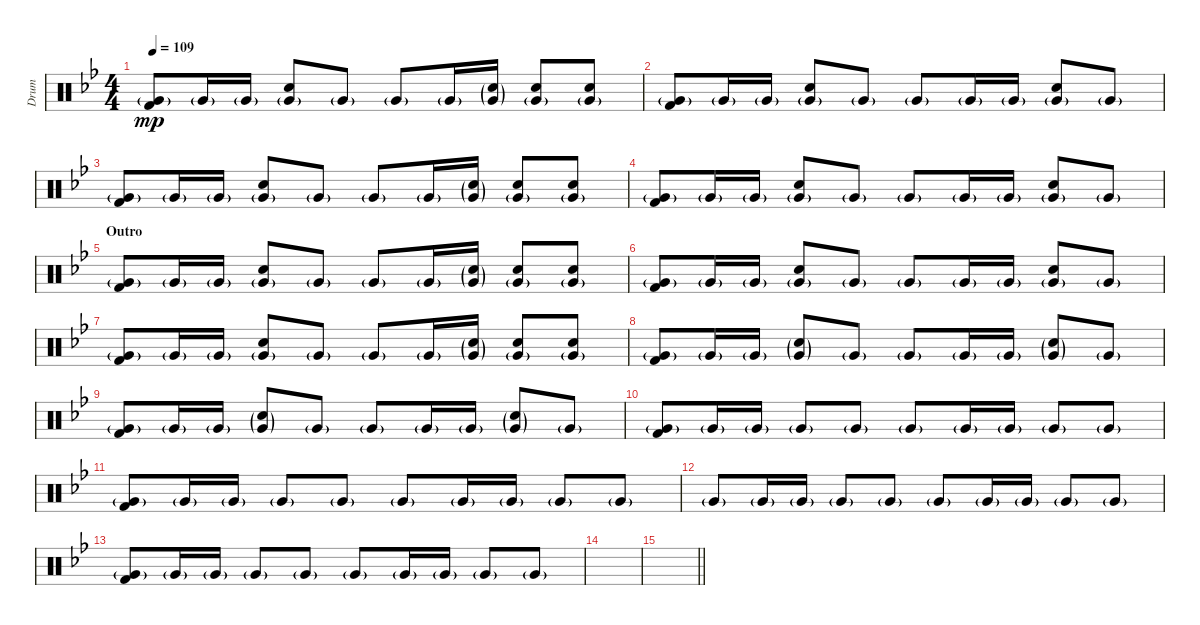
\track ("Drum" "Drum") {instrument percussion}
\staff {score}
\articulation defaults
\ts (4 4)
\tempo 109
\clef neutral
\ks bb
("Very Low Tom (hit)"{g} "Kick (hit) 2").8{dy mp} "Very Low Tom (hit)"{g}.16 "Very Low Tom (hit)"{g}.16 ("Very Low Tom (hit)"{g} "Snare (hit) 2").8 "Very Low Tom (hit)"{g}.8 "Very Low Tom (hit)"{g}.8 "Very Low Tom (hit)"{g}.16 ("Very Low Tom (hit)"{g} "Snare (hit) 2"{g}).16 ("Very Low Tom (hit)"{g} "Snare (hit) 2").8 ("Very Low Tom (hit)"{g} "Snare (hit) 2").8 |
("Very Low Tom (hit)"{g} "Kick (hit) 2").8 "Very Low Tom (hit)"{g}.16 "Very Low Tom (hit)"{g}.16 ("Very Low Tom (hit)"{g} "Snare (hit) 2").8 "Very Low Tom (hit)"{g}.8 "Very Low Tom (hit)"{g}.8 "Very Low Tom (hit)"{g}.16 "Very Low Tom (hit)"{g}.16 ("Very Low Tom (hit)"{g} "Snare (hit) 2").8 "Very Low Tom (hit)"{g}.8 |
("Very Low Tom (hit)"{g} "Kick (hit) 2").8 "Very Low Tom (hit)"{g}.16 "Very Low Tom (hit)"{g}.16 ("Very Low Tom (hit)"{g} "Snare (hit) 2").8 "Very Low Tom (hit)"{g}.8 "Very Low Tom (hit)"{g}.8 "Very Low Tom (hit)"{g}.16 ("Very Low Tom (hit)"{g} "Snare (hit) 2"{g}).16 ("Very Low Tom (hit)"{g} "Snare (hit) 2").8 ("Very Low Tom (hit)"{g} "Snare (hit) 2").8 |
("Very Low Tom (hit)"{g} "Kick (hit) 2").8 "Very Low Tom (hit)"{g}.16 "Very Low Tom (hit)"{g}.16 ("Very Low Tom (hit)"{g} "Snare (hit) 2").8 "Very Low Tom (hit)"{g}.8 "Very Low Tom (hit)"{g}.8 "Very Low Tom (hit)"{g}.16 "Very Low Tom (hit)"{g}.16 ("Very Low Tom (hit)"{g} "Snare (hit) 2").8 "Very Low Tom (hit)"{g}.8 |
\section ("" "Outro")
("Very Low Tom (hit)"{g} "Kick (hit) 2").8 "Very Low Tom (hit)"{g}.16 "Very Low Tom (hit)"{g}.16 ("Very Low Tom (hit)"{g} "Snare (hit) 2").8 "Very Low Tom (hit)"{g}.8 "Very Low Tom (hit)"{g}.8 "Very Low Tom (hit)"{g}.16 ("Very Low Tom (hit)"{g} "Snare (hit) 2"{g}).16 ("Very Low Tom (hit)"{g} "Snare (hit) 2").8 ("Very Low Tom (hit)"{g} "Snare (hit) 2").8 |
("Very Low Tom (hit)"{g} "Kick (hit) 2").8{volume 6} "Very Low Tom (hit)"{g}.16 "Very Low Tom (hit)"{g}.16 ("Very Low Tom (hit)"{g} "Snare (hit) 2").8 "Very Low Tom (hit)"{g}.8 "Very Low Tom (hit)"{g}.8 "Very Low Tom (hit)"{g}.16 "Very Low Tom (hit)"{g}.16 ("Very Low Tom (hit)"{g} "Snare (hit) 2").8 "Very Low Tom (hit)"{g}.8 |
("Very Low Tom (hit)"{g} "Kick (hit) 2").8 "Very Low Tom (hit)"{g}.16 "Very Low Tom (hit)"{g}.16 ("Very Low Tom (hit)"{g} "Snare (hit) 2").8 "Very Low Tom (hit)"{g}.8 "Very Low Tom (hit)"{g}.8 "Very Low Tom (hit)"{g}.16 ("Very Low Tom (hit)"{g} "Snare (hit) 2"{g}).16 ("Very Low Tom (hit)"{g} "Snare (hit) 2").8 ("Very Low Tom (hit)"{g} "Snare (hit) 2").8 |
("Very Low Tom (hit)"{g} "Kick (hit) 2").8 "Very Low Tom (hit)"{g}.16 "Very Low Tom (hit)"{g}.16 ("Very Low Tom (hit)"{g} "Snare (hit) 2"{g}).8 "Very Low Tom (hit)"{g}.8 "Very Low Tom (hit)"{g}.8 "Very Low Tom (hit)"{g}.16 "Very Low Tom (hit)"{g}.16 ("Very Low Tom (hit)"{g} "Snare (hit) 2"{g}).8 "Very Low Tom (hit)"{g}.8 |
("Very Low Tom (hit)"{g} "Kick (hit) 2").8 "Very Low Tom (hit)"{g}.16 "Very Low Tom (hit)"{g}.16 ("Very Low Tom (hit)"{g} "Snare (hit) 2"{g}).8 "Very Low Tom (hit)"{g}.8 "Very Low Tom (hit)"{g}.8 "Very Low Tom (hit)"{g}.16 "Very Low Tom (hit)"{g}.16 ("Very Low Tom (hit)"{g} "Snare (hit) 2"{g}).8 "Very Low Tom (hit)"{g}.8 |
("Very Low Tom (hit)"{g} "Kick (hit) 2").8{volume 3} "Very Low Tom (hit)"{g}.16 "Very Low Tom (hit)"{g}.16 "Very Low Tom (hit)"{g}.8 "Very Low Tom (hit)"{g}.8 "Very Low Tom (hit)"{g}.8 "Very Low Tom (hit)"{g}.16 "Very Low Tom (hit)"{g}.16 "Very Low Tom (hit)"{g}.8 "Very Low Tom (hit)"{g}.8 |
("Very Low Tom (hit)"{g} "Kick (hit) 2").8 "Very Low Tom (hit)"{g}.16 "Very Low Tom (hit)"{g}.16 "Very Low Tom (hit)"{g}.8 "Very Low Tom (hit)"{g}.8 "Very Low Tom (hit)"{g}.8 "Very Low Tom (hit)"{g}.16 "Very Low Tom (hit)"{g}.16 "Very Low Tom (hit)"{g}.8 "Very Low Tom (hit)"{g}.8 |
"Very Low Tom (hit)"{g}.8 "Very Low Tom (hit)"{g}.16 "Very Low Tom (hit)"{g}.16 "Very Low Tom (hit)"{g}.8 "Very Low Tom (hit)"{g}.8 "Very Low Tom (hit)"{g}.8 "Very Low Tom (hit)"{g}.16 "Very Low Tom (hit)"{g}.16 "Very Low Tom (hit)"{g}.8 "Very Low Tom (hit)"{g}.8 |
("Very Low Tom (hit)"{g} "Kick (hit) 2").8{volume 0} "Very Low Tom (hit)"{g}.16 "Very Low Tom (hit)"{g}.16 "Very Low Tom (hit)"{g}.8 "Very Low Tom (hit)"{g}.8 "Very Low Tom (hit)"{g}.8 "Very Low Tom (hit)"{g}.16 "Very Low Tom (hit)"{g}.16 "Very Low Tom (hit)"{g}.8 "Very Low Tom (hit)"{g}.8 |
|
\barLineRight lightlight
